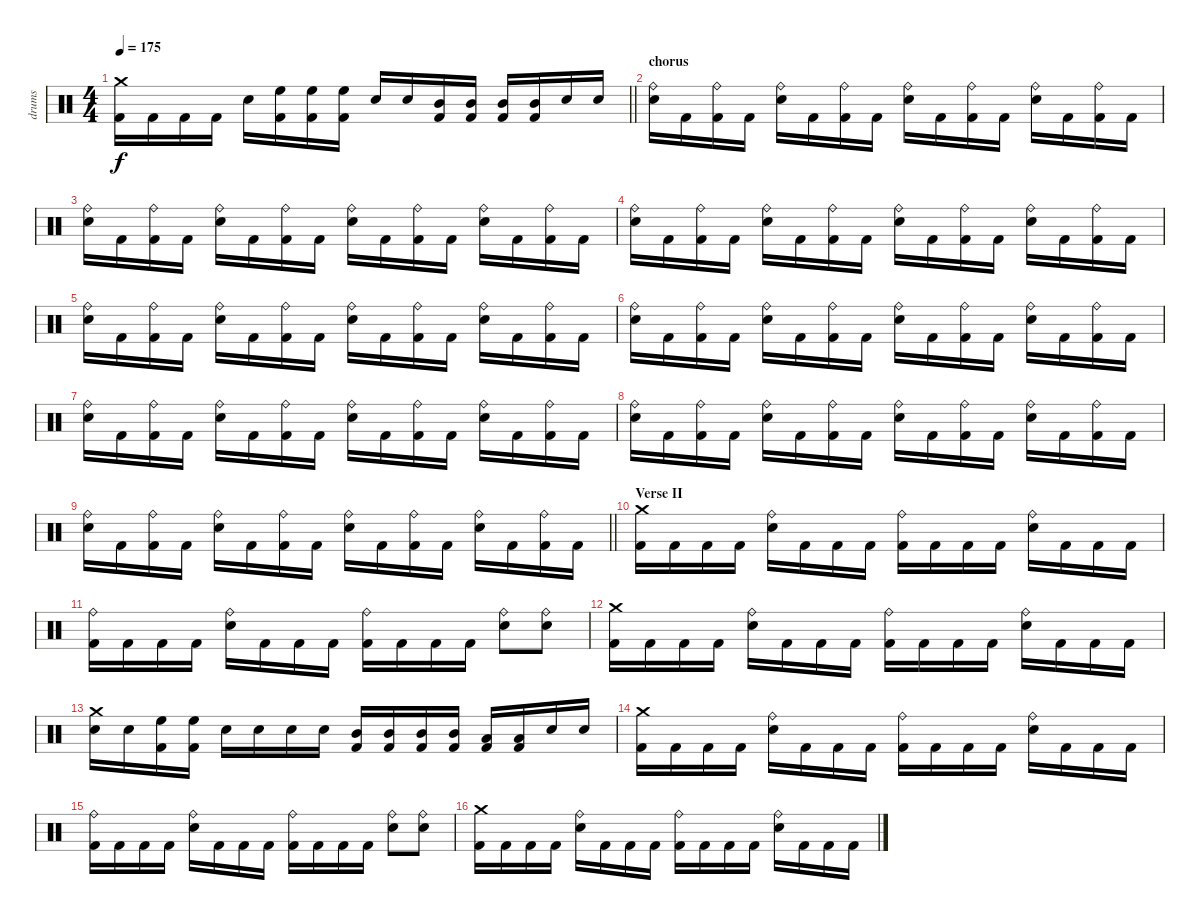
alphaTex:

\track ("drums" "drums") {instrument percussion}
\staff {score}
\articulation defaults
\ts (4 4)
\tempo 175
\clef neutral
\barLineRight lightlight
\ks c
("Crash medium (hit)" "Kick (hit) 2").16{dy f} "Kick (hit) 2".16 "Kick (hit) 2".16 "Kick (hit) 2".16 "Snare (hit) 2".16 ("High Floor Tom (hit)" "Kick (hit) 2").16 ("High Floor Tom (hit)" "Kick (hit) 2").16 ("High Floor Tom (hit)" "Kick (hit) 2").16 "Snare (hit) 2".16 "Snare (hit) 2".16 ("Mid Tom (hit)" "Kick (hit) 2").16 ("Mid Tom (hit)" "Kick (hit) 2").16 ("Mid Tom (hit)" "Kick (hit) 2").16 ("Mid Tom (hit)" "Kick (hit) 2").16 "Snare (hit) 2".16 "Snare (hit) 2".16 |
\section ("" "chorus")
("Ride (bell)" "Snare (hit) 2").16 "Kick (hit) 2".16 ("Ride (bell)" "Kick (hit) 2").16 "Kick (hit) 2".16 ("Ride (bell)" "Snare (hit) 2").16 "Kick (hit) 2".16 ("Ride (bell)" "Kick (hit) 2").16 "Kick (hit) 2".16 ("Ride (bell)" "Snare (hit) 2").16 "Kick (hit) 2".16 ("Ride (bell)" "Kick (hit) 2").16 "Kick (hit) 2".16 ("Ride (bell)" "Snare (hit) 2").16 "Kick (hit) 2".16 ("Ride (bell)" "Kick (hit) 2").16 "Kick (hit) 2".16 |
("Ride (bell)" "Snare (hit) 2").16 "Kick (hit) 2".16 ("Ride (bell)" "Kick (hit) 2").16 "Kick (hit) 2".16 ("Ride (bell)" "Snare (hit) 2").16 "Kick (hit) 2".16 ("Ride (bell)" "Kick (hit) 2").16 "Kick (hit) 2".16 ("Ride (bell)" "Snare (hit) 2").16 "Kick (hit) 2".16 ("Ride (bell)" "Kick (hit) 2").16 "Kick (hit) 2".16 ("Ride (bell)" "Snare (hit) 2").16 "Kick (hit) 2".16 ("Ride (bell)" "Kick (hit) 2").16 "Kick (hit) 2".16 |
("Ride (bell)" "Snare (hit) 2").16 "Kick (hit) 2".16 ("Ride (bell)" "Kick (hit) 2").16 "Kick (hit) 2".16 ("Ride (bell)" "Snare (hit) 2").16 "Kick (hit) 2".16 ("Ride (bell)" "Kick (hit) 2").16 "Kick (hit) 2".16 ("Ride (bell)" "Snare (hit) 2").16 "Kick (hit) 2".16 ("Ride (bell)" "Kick (hit) 2").16 "Kick (hit) 2".16 ("Ride (bell)" "Snare (hit) 2").16 "Kick (hit) 2".16 ("Ride (bell)" "Kick (hit) 2").16 "Kick (hit) 2".16 |
("Ride (bell)" "Snare (hit) 2").16 "Kick (hit) 2".16 ("Ride (bell)" "Kick (hit) 2").16 "Kick (hit) 2".16 ("Ride (bell)" "Snare (hit) 2").16 "Kick (hit) 2".16 ("Ride (bell)" "Kick (hit) 2").16 "Kick (hit) 2".16 ("Ride (bell)" "Snare (hit) 2").16 "Kick (hit) 2".16 ("Ride (bell)" "Kick (hit) 2").16 "Kick (hit) 2".16 ("Ride (bell)" "Snare (hit) 2").16 "Kick (hit) 2".16 ("Ride (bell)" "Kick (hit) 2").16 "Kick (hit) 2".16 |
("Ride (bell)" "Snare (hit) 2").16 "Kick (hit) 2".16 ("Ride (bell)" "Kick (hit) 2").16 "Kick (hit) 2".16 ("Ride (bell)" "Snare (hit) 2").16 "Kick (hit) 2".16 ("Ride (bell)" "Kick (hit) 2").16 "Kick (hit) 2".16 ("Ride (bell)" "Snare (hit) 2").16 "Kick (hit) 2".16 ("Ride (bell)" "Kick (hit) 2").16 "Kick (hit) 2".16 ("Ride (bell)" "Snare (hit) 2").16 "Kick (hit) 2".16 ("Ride (bell)" "Kick (hit) 2").16 "Kick (hit) 2".16 |
("Ride (bell)" "Snare (hit) 2").16 "Kick (hit) 2".16 ("Ride (bell)" "Kick (hit) 2").16 "Kick (hit) 2".16 ("Ride (bell)" "Snare (hit) 2").16 "Kick (hit) 2".16 ("Ride (bell)" "Kick (hit) 2").16 "Kick (hit) 2".16 ("Ride (bell)" "Snare (hit) 2").16 "Kick (hit) 2".16 ("Ride (bell)" "Kick (hit) 2").16 "Kick (hit) 2".16 ("Ride (bell)" "Snare (hit) 2").16 "Kick (hit) 2".16 ("Ride (bell)" "Kick (hit) 2").16 "Kick (hit) 2".16 |
("Ride (bell)" "Snare (hit) 2").16 "Kick (hit) 2".16 ("Ride (bell)" "Kick (hit) 2").16 "Kick (hit) 2".16 ("Ride (bell)" "Snare (hit) 2").16 "Kick (hit) 2".16 ("Ride (bell)" "Kick (hit) 2").16 "Kick (hit) 2".16 ("Ride (bell)" "Snare (hit) 2").16 "Kick (hit) 2".16 ("Ride (bell)" "Kick (hit) 2").16 "Kick (hit) 2".16 ("Ride (bell)" "Snare (hit) 2").16 "Kick (hit) 2".16 ("Ride (bell)" "Kick (hit) 2").16 "Kick (hit) 2".16 |
\barLineRight lightlight
("Ride (bell)" "Snare (hit) 2").16 "Kick (hit) 2".16 ("Ride (bell)" "Kick (hit) 2").16 "Kick (hit) 2".16 ("Ride (bell)" "Snare (hit) 2").16 "Kick (hit) 2".16 ("Ride (bell)" "Kick (hit) 2").16 "Kick (hit) 2".16 ("Ride (bell)" "Snare (hit) 2").16 "Kick (hit) 2".16 ("Ride (bell)" "Kick (hit) 2").16 "Kick (hit) 2".16 ("Ride (bell)" "Snare (hit) 2").16 "Kick (hit) 2".16 ("Ride (bell)" "Kick (hit) 2").16 "Kick (hit) 2".16 |
\section ("" "Verse II")
("Crash medium (hit)" "Kick (hit) 2").16 "Kick (hit) 2".16 "Kick (hit) 2".16 "Kick (hit) 2".16 ("Ride (bell)" "Snare (hit) 2").16 "Kick (hit) 2".16 "Kick (hit) 2".16 "Kick (hit) 2".16 ("Ride (bell)" "Kick (hit) 2").16 "Kick (hit) 2".16 "Kick (hit) 2".16 "Kick (hit) 2".16 ("Ride (bell)" "Snare (hit) 2").16 "Kick (hit) 2".16 "Kick (hit) 2".16 "Kick (hit) 2".16 |
("Ride (bell)" "Kick (hit) 2").16 "Kick (hit) 2".16 "Kick (hit) 2".16 "Kick (hit) 2".16 ("Ride (bell)" "Snare (hit) 2").16 "Kick (hit) 2".16 "Kick (hit) 2".16 "Kick (hit) 2".16 ("Ride (bell)" "Kick (hit) 2").16 "Kick (hit) 2".16 "Kick (hit) 2".16 "Kick (hit) 2".16 ("Ride (bell)" "Snare (hit) 2").8 ("Ride (bell)" "Snare (hit) 2").8 |
("Crash medium (hit)" "Kick (hit) 2").16 "Kick (hit) 2".16 "Kick (hit) 2".16 "Kick (hit) 2".16 ("Ride (bell)" "Snare (hit) 2").16 "Kick (hit) 2".16 "Kick (hit) 2".16 "Kick (hit) 2".16 ("Ride (bell)" "Kick (hit) 2").16 "Kick (hit) 2".16 "Kick (hit) 2".16 "Kick (hit) 2".16 ("Ride (bell)" "Snare (hit) 2").16 "Kick (hit) 2".16 "Kick (hit) 2".16 "Kick (hit) 2".16 |
("Crash medium (hit)" "Snare (hit) 2").16 "Snare (hit) 2".16 ("High Floor Tom (hit)" "Kick (hit) 2").16 ("High Floor Tom (hit)" "Kick (hit) 2").16 "Snare (hit) 2".16 "Snare (hit) 2".16 "Snare (hit) 2".16 "Snare (hit) 2".16 ("Mid Tom (hit)" "Kick (hit) 2").16 ("Mid Tom (hit)" "Kick (hit) 2").16 ("Mid Tom (hit)" "Kick (hit) 2").16 ("Mid Tom (hit)" "Kick (hit) 2").16 ("Low Tom (hit)" "Kick (hit) 2").16 ("Low Tom (hit)" "Kick (hit) 2").16 "Snare (hit) 2".16 "Snare (hit) 2".16 |
("Crash medium (hit)" "Kick (hit) 2").16 "Kick (hit) 2".16 "Kick (hit) 2".16 "Kick (hit) 2".16 ("Ride (bell)" "Snare (hit) 2").16 "Kick (hit) 2".16 "Kick (hit) 2".16 "Kick (hit) 2".16 ("Ride (bell)" "Kick (hit) 2").16 "Kick (hit) 2".16 "Kick (hit) 2".16 "Kick (hit) 2".16 ("Ride (bell)" "Snare (hit) 2").16 "Kick (hit) 2".16 "Kick (hit) 2".16 "Kick (hit) 2".16 |
("Ride (bell)" "Kick (hit) 2").16 "Kick (hit) 2".16 "Kick (hit) 2".16 "Kick (hit) 2".16 ("Ride (bell)" "Snare (hit) 2").16 "Kick (hit) 2".16 "Kick (hit) 2".16 "Kick (hit) 2".16 ("Ride (bell)" "Kick (hit) 2").16 "Kick (hit) 2".16 "Kick (hit) 2".16 "Kick (hit) 2".16 ("Ride (bell)" "Snare (hit) 2").8 ("Ride (bell)" "Snare (hit) 2").8 |
("Crash medium (hit)" "Kick (hit) 2").16 "Kick (hit) 2".16 "Kick (hit) 2".16 "Kick (hit) 2".16 ("Ride (bell)" "Snare (hit) 2").16 "Kick (hit) 2".16 "Kick (hit) 2".16 "Kick (hit) 2".16 ("Ride (bell)" "Kick (hit) 2").16 "Kick (hit) 2".16 "Kick (hit) 2".16 "Kick (hit) 2".16 ("Ride (bell)" "Snare (hit) 2").16 "Kick (hit) 2".16 "Kick (hit) 2".16 "Kick (hit) 2".16
